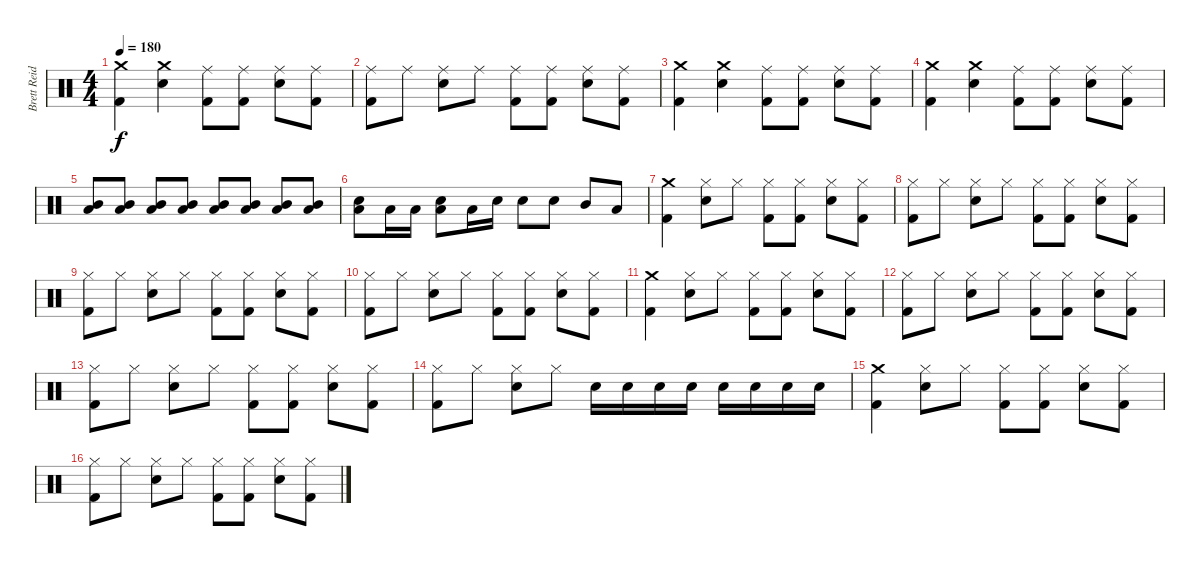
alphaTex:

\track ("Brett Reid" "Brett Reid") {instrument percussion}
\staff {score}
\articulation defaults
\ts (4 4)
\tempo 180
\clef neutral
\ks c
("Crash medium (hit)" "Kick (hit) 2").4{dy f} ("Crash medium (hit)" "Snare (hit) 2").4 ("Ride (middle)" "Kick (hit) 2").8 ("Ride (middle)" "Kick (hit) 2").8 ("Ride (middle)" "Snare (hit) 2").8 ("Ride (middle)" "Kick (hit) 2").8 |
("Ride (middle)" "Kick (hit) 2").8 "Ride (middle)".8 ("Ride (middle)" "Snare (hit) 2").8 "Ride (middle)".8 ("Ride (middle)" "Kick (hit) 2").8 ("Ride (middle)" "Kick (hit) 2").8 ("Ride (middle)" "Snare (hit) 2").8 ("Ride (middle)" "Kick (hit) 2").8 |
("Crash medium (hit)" "Kick (hit) 2").4 ("Crash medium (hit)" "Snare (hit) 2").4 ("Ride (middle)" "Kick (hit) 2").8 ("Ride (middle)" "Kick (hit) 2").8 ("Ride (middle)" "Snare (hit) 2").8 ("Ride (middle)" "Kick (hit) 2").8 |
("Crash medium (hit)" "Kick (hit) 2").4 ("Crash medium (hit)" "Snare (hit) 2").4 ("Ride (middle)" "Kick (hit) 2").8 ("Ride (middle)" "Kick (hit) 2").8 ("Ride (middle)" "Snare (hit) 2").8 ("Ride (middle)" "Kick (hit) 2").8 |
("Low Floor Tom (hit)" "Mid Tom (hit)").8 ("Low Floor Tom (hit)" "Mid Tom (hit)").8 ("Low Floor Tom (hit)" "Mid Tom (hit)").8 ("Low Floor Tom (hit)" "Mid Tom (hit)").8 ("Low Floor Tom (hit)" "Mid Tom (hit)").8 ("Low Floor Tom (hit)" "Mid Tom (hit)").8 ("Low Floor Tom (hit)" "Mid Tom (hit)").8 ("Low Floor Tom (hit)" "Mid Tom (hit)").8 |
("Low Floor Tom (hit)" "Snare (hit) 2").8 "Low Floor Tom (hit)".16 "Low Floor Tom (hit)".16 ("Low Floor Tom (hit)" "Snare (hit) 2").8 "Low Floor Tom (hit)".16 "Snare (hit) 2".16 "Snare (hit) 2".8 "Snare (hit) 2".8 "Mid Tom (hit)".8 "Low Floor Tom (hit)".8 |
("Crash medium (hit)" "Kick (hit) 2").4 ("Hi-Hat (closed)" "Snare (hit) 2").8 "Hi-Hat (closed)".8 ("Hi-Hat (closed)" "Kick (hit) 2").8 ("Hi-Hat (closed)" "Kick (hit) 2").8 ("Hi-Hat (closed)" "Snare (hit) 2").8 ("Hi-Hat (closed)" "Kick (hit) 2").8 |
("Hi-Hat (closed)" "Kick (hit) 2").8 "Hi-Hat (closed)".8 ("Hi-Hat (closed)" "Snare (hit) 2").8 "Hi-Hat (closed)".8 ("Hi-Hat (closed)" "Kick (hit) 2").8 ("Hi-Hat (closed)" "Kick (hit) 2").8 ("Hi-Hat (closed)" "Snare (hit) 2").8 ("Hi-Hat (closed)" "Kick (hit) 2").8 |
("Hi-Hat (closed)" "Kick (hit) 2").8 "Hi-Hat (closed)".8 ("Hi-Hat (closed)" "Snare (hit) 2").8 "Hi-Hat (closed)".8 ("Hi-Hat (closed)" "Kick (hit) 2").8 ("Hi-Hat (closed)" "Kick (hit) 2").8 ("Hi-Hat (closed)" "Snare (hit) 2").8 ("Hi-Hat (closed)" "Kick (hit) 2").8 |
("Hi-Hat (closed)" "Kick (hit) 2").8 "Hi-Hat (closed)".8 ("Hi-Hat (closed)" "Snare (hit) 2").8 "Hi-Hat (closed)".8 ("Hi-Hat (closed)" "Kick (hit) 2").8 ("Hi-Hat (closed)" "Kick (hit) 2").8 ("Hi-Hat (closed)" "Snare (hit) 2").8 ("Hi-Hat (closed)" "Kick (hit) 2").8 |
("Crash medium (hit)" "Kick (hit) 2").4 ("Hi-Hat (closed)" "Snare (hit) 2").8 "Hi-Hat (closed)".8 ("Hi-Hat (closed)" "Kick (hit) 2").8 ("Hi-Hat (closed)" "Kick (hit) 2").8 ("Hi-Hat (closed)" "Snare (hit) 2").8 ("Hi-Hat (closed)" "Kick (hit) 2").8 |
("Hi-Hat (closed)" "Kick (hit) 2").8 "Hi-Hat (closed)".8 ("Hi-Hat (closed)" "Snare (hit) 2").8 "Hi-Hat (closed)".8 ("Hi-Hat (closed)" "Kick (hit) 2").8 ("Hi-Hat (closed)" "Kick (hit) 2").8 ("Hi-Hat (closed)" "Snare (hit) 2").8 ("Hi-Hat (closed)" "Kick (hit) 2").8 |
("Hi-Hat (closed)" "Kick (hit) 2").8 "Hi-Hat (closed)".8 ("Hi-Hat (closed)" "Snare (hit) 2").8 "Hi-Hat (closed)".8 ("Hi-Hat (closed)" "Kick (hit) 2").8 ("Hi-Hat (closed)" "Kick (hit) 2").8 ("Hi-Hat (closed)" "Snare (hit) 2").8 ("Hi-Hat (closed)" "Kick (hit) 2").8 |
("Hi-Hat (closed)" "Kick (hit) 2").8 "Hi-Hat (closed)".8 ("Hi-Hat (closed)" "Snare (hit) 2").8 "Hi-Hat (closed)".8 "Snare (hit) 2".16 "Snare (hit) 2".16 "Snare (hit) 2".16 "Snare (hit) 2".16 "Snare (hit) 2".16 "Snare (hit) 2".16 "Snare (hit) 2".16 "Snare (hit) 2".16 |
("Crash medium (hit)" "Kick (hit) 2").4 ("Hi-Hat (closed)" "Snare (hit) 2").8 "Hi-Hat (closed)".8 ("Hi-Hat (closed)" "Kick (hit) 2").8 ("Hi-Hat (closed)" "Kick (hit) 2").8 ("Hi-Hat (closed)" "Snare (hit) 2").8 ("Hi-Hat (closed)" "Kick (hit) 2").8 |
("Hi-Hat (closed)" "Kick (hit) 2").8 "Hi-Hat (closed)".8 ("Hi-Hat (closed)" "Snare (hit) 2").8 "Hi-Hat (closed)".8 ("Hi-Hat (closed)" "Kick (hit) 2").8 ("Hi-Hat (closed)" "Kick (hit) 2").8 ("Hi-Hat (closed)" "Snare (hit) 2").8 ("Hi-Hat (closed)" "Kick (hit) 2").8
